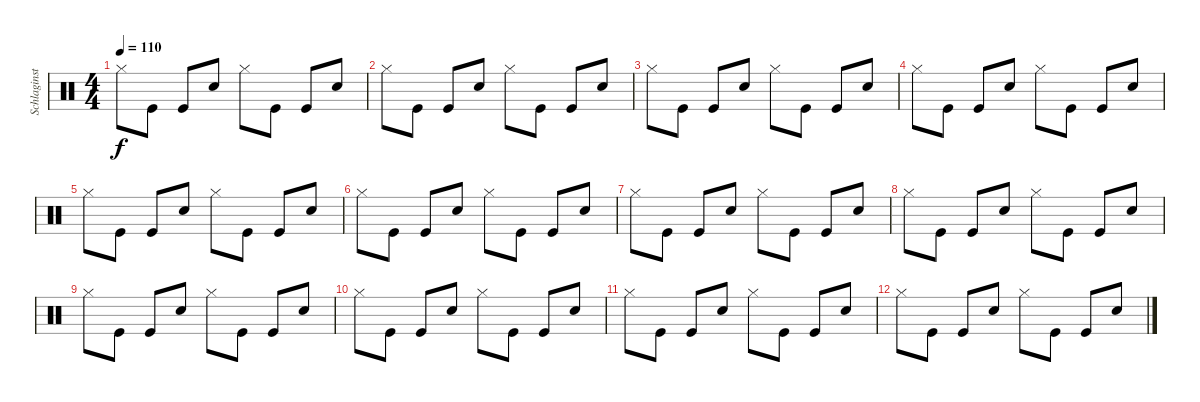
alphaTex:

\track ("Schlaginstrumente - Auswahl" "Schlaginst") {instrument percussion}
\staff {score}
\articulation defaults
\ts (4 4)
\tempo 110
\clef neutral
\ks c "Hi-Hat (closed)".8{dy f} "Kick (hit)".8 "Kick (hit)".8 "Snare (hit) 2".8 "Hi-Hat (closed)".8 "Kick (hit)".8 "Kick (hit)".8 "Snare (hit) 2".8
|
"Hi-Hat (closed)".8 "Kick (hit)".8 "Kick (hit)".8 "Snare (hit) 2".8 "Hi-Hat (closed)".8 "Kick (hit)".8 "Kick (hit)".8 "Snare (hit) 2".8 |
"Hi-Hat (closed)".8 "Kick (hit)".8 "Kick (hit)".8 "Snare (hit) 2".8 "Hi-Hat (closed)".8 "Kick (hit)".8 "Kick (hit)".8 "Snare (hit) 2".8 |
"Hi-Hat (closed)".8 "Kick (hit)".8 "Kick (hit)".8 "Snare (hit) 2".8 "Hi-Hat (closed)".8 "Kick (hit)".8 "Kick (hit)".8 "Snare (hit) 2".8 |
"Hi-Hat (closed)".8 "Kick (hit)".8 "Kick (hit)".8 "Snare (hit) 2".8 "Hi-Hat (closed)".8 "Kick (hit)".8 "Kick (hit)".8 "Snare (hit) 2".8 |
"Hi-Hat (closed)".8 "Kick (hit)".8 "Kick (hit)".8 "Snare (hit) 2".8 "Hi-Hat (closed)".8 "Kick (hit)".8 "Kick (hit)".8 "Snare (hit) 2".8 |
"Hi-Hat (closed)".8 "Kick (hit)".8 "Kick (hit)".8 "Snare (hit) 2".8 "Hi-Hat (closed)".8 "Kick (hit)".8 "Kick (hit)".8 "Snare (hit) 2".8 |
"Hi-Hat (closed)".8 "Kick (hit)".8 "Kick (hit)".8 "Snare (hit) 2".8 "Hi-Hat (closed)".8 "Kick (hit)".8 "Kick (hit)".8 "Snare (hit) 2".8 |
"Hi-Hat (closed)".8 "Kick (hit)".8 "Kick (hit)".8 "Snare (hit) 2".8 "Hi-Hat (closed)".8 "Kick (hit)".8 "Kick (hit)".8 "Snare (hit) 2".8 |
"Hi-Hat (closed)".8 "Kick (hit)".8 "Kick (hit)".8 "Snare (hit) 2".8 "Hi-Hat (closed)".8 "Kick (hit)".8 "Kick (hit)".8 "Snare (hit) 2".8 |
"Hi-Hat (closed)".8 "Kick (hit)".8 "Kick (hit)".8 "Snare (hit) 2".8 "Hi-Hat (closed)".8 "Kick (hit)".8 "Kick (hit)".8 "Snare (hit) 2".8 |
"Hi-Hat (closed)".8 "Kick (hit)".8 "Kick (hit)".8 "Snare (hit) 2".8 "Hi-Hat (closed)".8 "Kick (hit)".8 "Kick (hit)".8 "Snare (hit) 2".8
